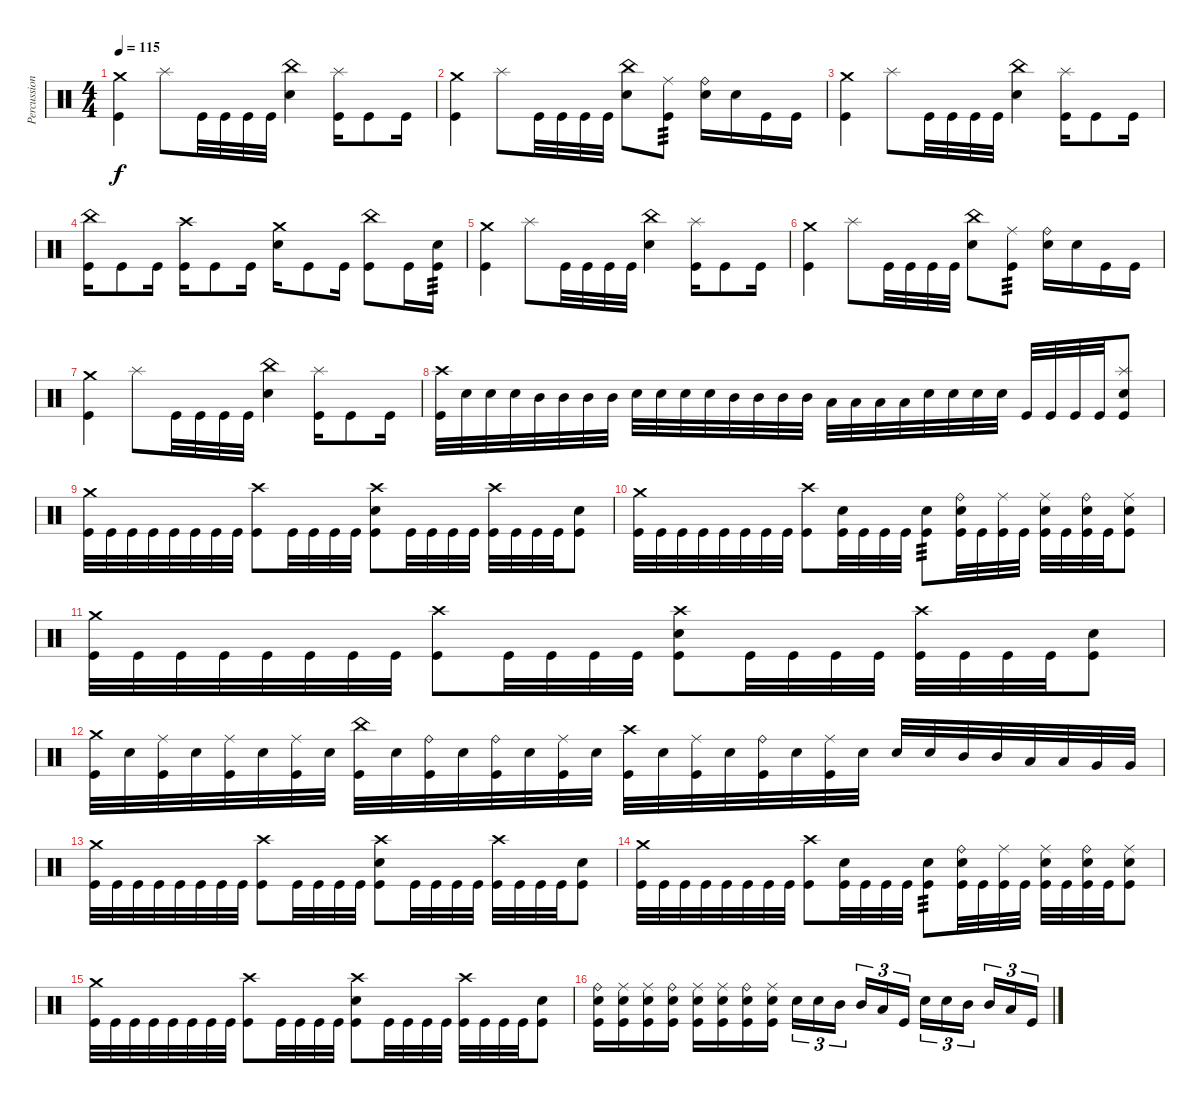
\track ("Percussion" "Percussion") {instrument percussion}
\staff {score}
\articulation defaults
\ts (4 4)
\tempo 115
\clef neutral
\ks c
("Crash medium (hit)" "Kick (hit)").4{dy f} "Splash (hit)".8 "Kick (hit)".32 "Kick (hit)".32 "Kick (hit)".32 "Kick (hit)".32 ("China (hit)" "Electric Snare (hit)").4 ("Splash (hit)" "Kick (hit)").16 "Kick (hit)".8 "Kick (hit)".16 |
("Crash medium (hit)" "Kick (hit)").4 "Splash (hit)".8 "Kick (hit)".32 "Kick (hit)".32 "Kick (hit)".32 "Kick (hit)".32 ("China (hit)" "Electric Snare (hit)").8 ("Ride (middle)" "Kick (hit)").8{tp 3} ("Ride (bell)" "Electric Snare (hit)").16 "Electric Snare (hit)".16 "Kick (hit)".16 "Kick (hit)".16 |
("Crash medium (hit)" "Kick (hit)").4 "Splash (hit)".8 "Kick (hit)".32 "Kick (hit)".32 "Kick (hit)".32 "Kick (hit)".32 ("China (hit)" "Electric Snare (hit)").4 ("Splash (hit)" "Kick (hit)").16 "Kick (hit)".8 "Kick (hit)".16 |
("China (hit)" "Kick (hit)").16 "Kick (hit)".8 "Kick (hit)".16 ("Crash high (hit)" "Kick (hit)").16 "Kick (hit)".8 "Kick (hit)".16 ("Crash medium (hit)" "Electric Snare (hit)").16 "Kick (hit)".8 "Kick (hit)".16 ("China (hit)" "Kick (hit)").8 "Kick (hit)".16 ("Electric Snare (hit)" "Kick (hit)").16{tp 3} |
("Crash medium (hit)" "Kick (hit)").4 "Splash (hit)".8 "Kick (hit)".32 "Kick (hit)".32 "Kick (hit)".32 "Kick (hit)".32 ("China (hit)" "Electric Snare (hit)").4 ("Splash (hit)" "Kick (hit)").16 "Kick (hit)".8 "Kick (hit)".16 |
("Crash medium (hit)" "Kick (hit)").4 "Splash (hit)".8 "Kick (hit)".32 "Kick (hit)".32 "Kick (hit)".32 "Kick (hit)".32 ("China (hit)" "Electric Snare (hit)").8 ("Ride (middle)" "Kick (hit)").8{tp 3} ("Ride (bell)" "Electric Snare (hit)").16 "Electric Snare (hit)".16 "Kick (hit)".16 "Kick (hit)".16 |
("Crash medium (hit)" "Kick (hit)").4 "Splash (hit)".8 "Kick (hit)".32 "Kick (hit)".32 "Kick (hit)".32 "Kick (hit)".32 ("China (hit)" "Electric Snare (hit)").4 ("Splash (hit)" "Kick (hit)").16 "Kick (hit)".8 "Kick (hit)".16 |
("Crash high (hit)" "Kick (hit)").32 "Electric Snare (hit)".32 "Electric Snare (hit)".32 "Electric Snare (hit)".32 "Mid Tom (hit)".32 "Mid Tom (hit)".32 "Mid Tom (hit)".32 "Mid Tom (hit)".32 "Electric Snare (hit)".32 "Electric Snare (hit)".32 "Electric Snare (hit)".32 "Electric Snare (hit)".32 "Mid Tom (hit)".32 "Mid Tom (hit)".32 "Mid Tom (hit)".32 "Mid Tom (hit)".32 "Low Tom (hit)".32 "Low Tom (hit)".32 "Low Tom (hit)".32 "Low Tom (hit)".32 "Electric Snare (hit)".32 "Electric Snare (hit)".32 "Electric Snare (hit)".32 "Electric Snare (hit)".32 "Kick (hit)".32 "Kick (hit)".32 "Kick (hit)".32 "Kick (hit)".32 ("Splash (hit)" "Electric Snare (hit)" "Kick (hit)").8 |
("Crash medium (hit)" "Kick (hit)").32 "Kick (hit)".32 "Kick (hit)".32 "Kick (hit)".32 "Kick (hit)".32 "Kick (hit)".32 "Kick (hit)".32 "Kick (hit)".32 ("Crash high (hit)" "Kick (hit)").8 "Kick (hit)".32 "Kick (hit)".32 "Kick (hit)".32 "Kick (hit)".32 ("Crash high (hit)" "Electric Snare (hit)" "Kick (hit)").8 "Kick (hit)".32 "Kick (hit)".32 "Kick (hit)".32 "Kick (hit)".32 ("Crash high (hit)" "Kick (hit)").32 "Kick (hit)".32 "Kick (hit)".32 "Kick (hit)".32 ("Electric Snare (hit)" "Kick (hit)").8 |
("Crash medium (hit)" "Kick (hit)").32 "Kick (hit)".32 "Kick (hit)".32 "Kick (hit)".32 "Kick (hit)".32 "Kick (hit)".32 "Kick (hit)".32 "Kick (hit)".32 ("Crash high (hit)" "Kick (hit)").8 ("Electric Snare (hit)" "Kick (hit)").32 "Kick (hit)".32 "Kick (hit)".32 "Kick (hit)".32 ("Electric Snare (hit)" "Kick (hit)").8{tp 3} ("Ride (bell)" "Electric Snare (hit)" "Kick (hit)").32 "Kick (hit)".32 ("Ride (middle)" "Kick (hit)").32 "Kick (hit)".32 ("Ride (middle)" "Electric Snare (hit)" "Kick (hit)").32 "Kick (hit)".32 ("Ride (bell)" "Electric Snare (hit)" "Kick (hit)").32 "Kick (hit)".32 ("Ride (middle)" "Electric Snare (hit)" "Kick (hit)").8 |
("Crash medium (hit)" "Kick (hit)").32 "Kick (hit)".32 "Kick (hit)".32 "Kick (hit)".32 "Kick (hit)".32 "Kick (hit)".32 "Kick (hit)".32 "Kick (hit)".32 ("Crash high (hit)" "Kick (hit)").8 "Kick (hit)".32 "Kick (hit)".32 "Kick (hit)".32 "Kick (hit)".32 ("Crash high (hit)" "Electric Snare (hit)" "Kick (hit)").8 "Kick (hit)".32 "Kick (hit)".32 "Kick (hit)".32 "Kick (hit)".32 ("Crash high (hit)" "Kick (hit)").32 "Kick (hit)".32 "Kick (hit)".32 "Kick (hit)".32 ("Electric Snare (hit)" "Kick (hit)").8 |
("Crash medium (hit)" "Kick (hit)").32 "Electric Snare (hit)".32 ("Ride (middle)" "Kick (hit)").32 "Electric Snare (hit)".32 ("Ride (middle)" "Kick (hit)").32 "Electric Snare (hit)".32 ("Ride (middle)" "Kick (hit)").32 "Electric Snare (hit)".32 ("China (hit)" "Kick (hit)").32 "Electric Snare (hit)".32 ("Ride (bell)" "Kick (hit)").32 "Electric Snare (hit)".32 ("Ride (bell)" "Kick (hit)").32 "Electric Snare (hit)".32 ("Ride (middle)" "Kick (hit)").32 "Electric Snare (hit)".32 ("Crash high (hit)" "Kick (hit)").32 "Electric Snare (hit)".32 ("Ride (middle)" "Kick (hit)").32 "Electric Snare (hit)".32 ("Ride (bell)" "Kick (hit)").32 "Electric Snare (hit)".32 ("Ride (middle)" "Kick (hit)").32 "Electric Snare (hit)".32 "Electric Snare (hit)".32 "Electric Snare (hit)".32 "Mid Tom (hit)".32 "Mid Tom (hit)".32 "Low Tom (hit)".32 "Low Tom (hit)".32 "Very Low Tom (hit)".32 "Very Low Tom (hit)".32 |
("Crash medium (hit)" "Kick (hit)").32 "Kick (hit)".32 "Kick (hit)".32 "Kick (hit)".32 "Kick (hit)".32 "Kick (hit)".32 "Kick (hit)".32 "Kick (hit)".32 ("Crash high (hit)" "Kick (hit)").8 "Kick (hit)".32 "Kick (hit)".32 "Kick (hit)".32 "Kick (hit)".32 ("Crash high (hit)" "Electric Snare (hit)" "Kick (hit)").8 "Kick (hit)".32 "Kick (hit)".32 "Kick (hit)".32 "Kick (hit)".32 ("Crash high (hit)" "Kick (hit)").32 "Kick (hit)".32 "Kick (hit)".32 "Kick (hit)".32 ("Electric Snare (hit)" "Kick (hit)").8 |
("Crash medium (hit)" "Kick (hit)").32 "Kick (hit)".32 "Kick (hit)".32 "Kick (hit)".32 "Kick (hit)".32 "Kick (hit)".32 "Kick (hit)".32 "Kick (hit)".32 ("Crash high (hit)" "Kick (hit)").8 ("Electric Snare (hit)" "Kick (hit)").32 "Kick (hit)".32 "Kick (hit)".32 "Kick (hit)".32 ("Electric Snare (hit)" "Kick (hit)").8{tp 3} ("Ride (bell)" "Electric Snare (hit)" "Kick (hit)").32 "Kick (hit)".32 ("Ride (middle)" "Kick (hit)").32 "Kick (hit)".32 ("Ride (middle)" "Electric Snare (hit)" "Kick (hit)").32 "Kick (hit)".32 ("Ride (bell)" "Electric Snare (hit)" "Kick (hit)").32 "Kick (hit)".32 ("Ride (middle)" "Electric Snare (hit)" "Kick (hit)").8 |
("Crash medium (hit)" "Kick (hit)").32 "Kick (hit)".32 "Kick (hit)".32 "Kick (hit)".32 "Kick (hit)".32 "Kick (hit)".32 "Kick (hit)".32 "Kick (hit)".32 ("Crash high (hit)" "Kick (hit)").8 "Kick (hit)".32 "Kick (hit)".32 "Kick (hit)".32 "Kick (hit)".32 ("Crash high (hit)" "Electric Snare (hit)" "Kick (hit)").8 "Kick (hit)".32 "Kick (hit)".32 "Kick (hit)".32 "Kick (hit)".32 ("Crash high (hit)" "Kick (hit)").32 "Kick (hit)".32 "Kick (hit)".32 "Kick (hit)".32 ("Electric Snare (hit)" "Kick (hit)").8 |
("Ride (bell)" "Electric Snare (hit)" "Kick (hit)").16 ("Ride (middle)" "Electric Snare (hit)" "Kick (hit)").16 ("Ride (middle)" "Electric Snare (hit)" "Kick (hit)").16 ("Ride (bell)" "Electric Snare (hit)" "Kick (hit)").16 ("Ride (middle)" "Electric Snare (hit)" "Kick (hit)").16 ("Ride (middle)" "Electric Snare (hit)" "Kick (hit)").16 ("Ride (bell)" "Electric Snare (hit)" "Kick (hit)").16 ("Ride (middle)" "Electric Snare (hit)" "Kick (hit)").16 "Electric Snare (hit)".16{tu (3 2)} "Electric Snare (hit)".16{tu (3 2)} "Mid Tom (hit)".16{tu (3 2) beam splitsecondary} "Mid Tom (hit)".16{tu (3 2)} "Low Tom (hit)".16{tu (3 2)} "Kick (hit)".16{tu (3 2)} "Electric Snare (hit)".16{tu (3 2)} "Electric Snare (hit)".16{tu (3 2)} "Mid Tom (hit)".16{tu (3 2) beam splitsecondary} "Mid Tom (hit)".16{tu (3 2)} "Low Tom (hit)".16{tu (3 2)} "Kick (hit)".16{tu (3 2)}
